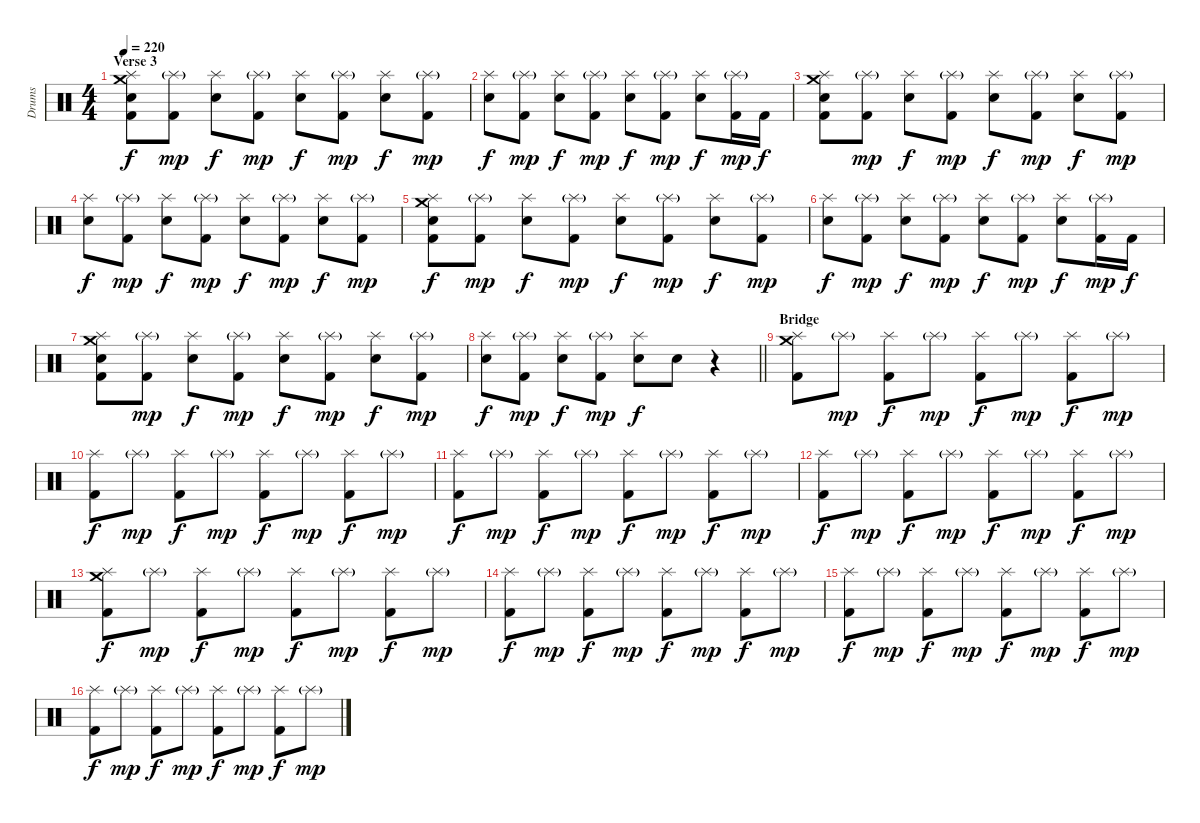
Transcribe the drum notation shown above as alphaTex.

\track ("Drums" "Drums") {instrument percussion}
\staff {score}
\articulation defaults
\ts (4 4)
\section ("" "Verse 3")
\tempo 220
\clef neutral
\ks c
("Crash medium (hit)" "Splash (hit)" "Electric Snare (hit)" "Kick (hit) 2").8{dy f} ("Splash (hit)"{g} "Kick (hit) 2").8{dy mp} ("Splash (hit)" "Electric Snare (hit)").8{dy f} ("Splash (hit)"{g} "Kick (hit) 2").8{dy mp} ("Splash (hit)" "Electric Snare (hit)").8{dy f} ("Splash (hit)"{g} "Kick (hit) 2").8{dy mp} ("Splash (hit)" "Electric Snare (hit)").8{dy f} ("Splash (hit)"{g} "Kick (hit) 2").8{dy mp} |
("Splash (hit)" "Electric Snare (hit)").8{dy f} ("Splash (hit)"{g} "Kick (hit) 2").8{dy mp} ("Splash (hit)" "Electric Snare (hit)").8{dy f} ("Splash (hit)"{g} "Kick (hit) 2").8{dy mp} ("Splash (hit)" "Electric Snare (hit)").8{dy f} ("Splash (hit)"{g} "Kick (hit) 2").8{dy mp} ("Splash (hit)" "Electric Snare (hit)").8{dy f} ("Splash (hit)"{g} "Kick (hit) 2").16{dy mp} "Kick (hit) 2".16{dy f} |
("Crash medium (hit)" "Splash (hit)" "Electric Snare (hit)" "Kick (hit) 2").8 ("Splash (hit)"{g} "Kick (hit) 2").8{dy mp} ("Splash (hit)" "Electric Snare (hit)").8{dy f} ("Splash (hit)"{g} "Kick (hit) 2").8{dy mp} ("Splash (hit)" "Electric Snare (hit)").8{dy f} ("Splash (hit)"{g} "Kick (hit) 2").8{dy mp} ("Splash (hit)" "Electric Snare (hit)").8{dy f} ("Splash (hit)"{g} "Kick (hit) 2").8{dy mp} |
("Splash (hit)" "Electric Snare (hit)").8{dy f} ("Splash (hit)"{g} "Kick (hit) 2").8{dy mp} ("Splash (hit)" "Electric Snare (hit)").8{dy f} ("Splash (hit)"{g} "Kick (hit) 2").8{dy mp} ("Splash (hit)" "Electric Snare (hit)").8{dy f} ("Splash (hit)"{g} "Kick (hit) 2").8{dy mp} ("Splash (hit)" "Electric Snare (hit)").8{dy f} ("Splash (hit)"{g} "Kick (hit) 2").8{dy mp} |
("Crash medium (hit)" "Splash (hit)" "Electric Snare (hit)" "Kick (hit) 2").8{dy f} ("Splash (hit)"{g} "Kick (hit) 2").8{dy mp} ("Splash (hit)" "Electric Snare (hit)").8{dy f} ("Splash (hit)"{g} "Kick (hit) 2").8{dy mp} ("Splash (hit)" "Electric Snare (hit)").8{dy f} ("Splash (hit)"{g} "Kick (hit) 2").8{dy mp} ("Splash (hit)" "Electric Snare (hit)").8{dy f} ("Splash (hit)"{g} "Kick (hit) 2").8{dy mp} |
("Splash (hit)" "Electric Snare (hit)").8{dy f} ("Splash (hit)"{g} "Kick (hit) 2").8{dy mp} ("Splash (hit)" "Electric Snare (hit)").8{dy f} ("Splash (hit)"{g} "Kick (hit) 2").8{dy mp} ("Splash (hit)" "Electric Snare (hit)").8{dy f} ("Splash (hit)"{g} "Kick (hit) 2").8{dy mp} ("Splash (hit)" "Electric Snare (hit)").8{dy f} ("Splash (hit)"{g} "Kick (hit) 2").16{dy mp} "Kick (hit) 2".16{dy f} |
("Crash medium (hit)" "Splash (hit)" "Electric Snare (hit)" "Kick (hit) 2").8 ("Splash (hit)"{g} "Kick (hit) 2").8{dy mp} ("Splash (hit)" "Electric Snare (hit)").8{dy f} ("Splash (hit)"{g} "Kick (hit) 2").8{dy mp} ("Splash (hit)" "Electric Snare (hit)").8{dy f} ("Splash (hit)"{g} "Kick (hit) 2").8{dy mp} ("Splash (hit)" "Electric Snare (hit)").8{dy f} ("Splash (hit)"{g} "Kick (hit) 2").8{dy mp} |
\barLineRight lightlight
("Splash (hit)" "Electric Snare (hit)").8{dy f} ("Splash (hit)"{g} "Kick (hit) 2").8{dy mp} ("Splash (hit)" "Electric Snare (hit)").8{dy f} ("Splash (hit)"{g} "Kick (hit) 2").8{dy mp} ("Splash (hit)" "Electric Snare (hit)").8{dy f} "Electric Snare (hit)".8 r.4 |
\section ("" "Bridge")
("Crash medium (hit)" "Splash (hit)" "Kick (hit) 2").8 "Splash (hit)"{g}.8{dy mp} ("Splash (hit)" "Kick (hit) 2").8{dy f} "Splash (hit)"{g}.8{dy mp} ("Splash (hit)" "Kick (hit) 2").8{dy f} "Splash (hit)"{g}.8{dy mp} ("Splash (hit)" "Kick (hit) 2").8{dy f} "Splash (hit)"{g}.8{dy mp} |
("Splash (hit)" "Kick (hit) 2").8{dy f} "Splash (hit)"{g}.8{dy mp} ("Splash (hit)" "Kick (hit) 2").8{dy f} "Splash (hit)"{g}.8{dy mp} ("Splash (hit)" "Kick (hit) 2").8{dy f} "Splash (hit)"{g}.8{dy mp} ("Splash (hit)" "Kick (hit) 2").8{dy f} "Splash (hit)"{g}.8{dy mp} |
("Splash (hit)" "Kick (hit) 2").8{dy f} "Splash (hit)"{g}.8{dy mp} ("Splash (hit)" "Kick (hit) 2").8{dy f} "Splash (hit)"{g}.8{dy mp} ("Splash (hit)" "Kick (hit) 2").8{dy f} "Splash (hit)"{g}.8{dy mp} ("Splash (hit)" "Kick (hit) 2").8{dy f} "Splash (hit)"{g}.8{dy mp} |
("Splash (hit)" "Kick (hit) 2").8{dy f} "Splash (hit)"{g}.8{dy mp} ("Splash (hit)" "Kick (hit) 2").8{dy f} "Splash (hit)"{g}.8{dy mp} ("Splash (hit)" "Kick (hit) 2").8{dy f} "Splash (hit)"{g}.8{dy mp} ("Splash (hit)" "Kick (hit) 2").8{dy f} "Splash (hit)"{g}.8{dy mp} |
("Crash medium (hit)" "Splash (hit)" "Kick (hit) 2").8{dy f} "Splash (hit)"{g}.8{dy mp} ("Splash (hit)" "Kick (hit) 2").8{dy f} "Splash (hit)"{g}.8{dy mp} ("Splash (hit)" "Kick (hit) 2").8{dy f} "Splash (hit)"{g}.8{dy mp} ("Splash (hit)" "Kick (hit) 2").8{dy f} "Splash (hit)"{g}.8{dy mp} |
("Splash (hit)" "Kick (hit) 2").8{dy f} "Splash (hit)"{g}.8{dy mp} ("Splash (hit)" "Kick (hit) 2").8{dy f} "Splash (hit)"{g}.8{dy mp} ("Splash (hit)" "Kick (hit) 2").8{dy f} "Splash (hit)"{g}.8{dy mp} ("Splash (hit)" "Kick (hit) 2").8{dy f} "Splash (hit)"{g}.8{dy mp} |
("Splash (hit)" "Kick (hit) 2").8{dy f} "Splash (hit)"{g}.8{dy mp} ("Splash (hit)" "Kick (hit) 2").8{dy f} "Splash (hit)"{g}.8{dy mp} ("Splash (hit)" "Kick (hit) 2").8{dy f} "Splash (hit)"{g}.8{dy mp} ("Splash (hit)" "Kick (hit) 2").8{dy f} "Splash (hit)"{g}.8{dy mp} |
("Splash (hit)" "Kick (hit) 2").8{dy f} "Splash (hit)"{g}.8{dy mp} ("Splash (hit)" "Kick (hit) 2").8{dy f} "Splash (hit)"{g}.8{dy mp} ("Splash (hit)" "Kick (hit) 2").8{dy f} "Splash (hit)"{g}.8{dy mp} ("Splash (hit)" "Kick (hit) 2").8{dy f} "Splash (hit)"{g}.8{dy mp}
